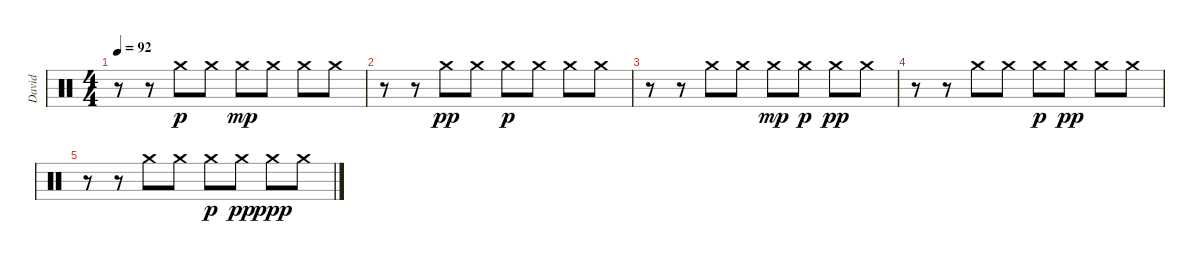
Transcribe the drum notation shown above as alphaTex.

\track ("David" "David") {instrument percussion}
\staff {score}
\articulation defaults
\ts (4 4)
\tempo 92
\clef neutral
\ks c
r.8{dy mp} r.8 "Crash medium (hit)".8{dy p} "Crash medium (hit)".8 "Crash medium (hit)".8{dy mp} "Crash medium (hit)".8 "Crash medium (hit)".8 "Crash medium (hit)".8 |
r.8 r.8 "Crash medium (hit)".8{dy pp} "Crash medium (hit)".8 "Crash medium (hit)".8{dy p} "Crash medium (hit)".8 "Crash medium (hit)".8 "Crash medium (hit)".8 |
r.8 r.8 "Crash medium (hit)".8 "Crash medium (hit)".8 "Crash medium (hit)".8{dy mp} "Crash medium (hit)".8{dy p} "Crash medium (hit)".8{dy pp} "Crash medium (hit)".8 |
r.8 r.8 "Crash medium (hit)".8 "Crash medium (hit)".8 "Crash medium (hit)".8{dy p} "Crash medium (hit)".8{dy pp} "Crash medium (hit)".8 "Crash medium (hit)".8 |
r.8 r.8 "Crash medium (hit)".8 "Crash medium (hit)".8 "Crash medium (hit)".8{dy p} "Crash medium (hit)".8{dy pp} "Crash medium (hit)".8{dy ppp} "Crash medium (hit)".8
